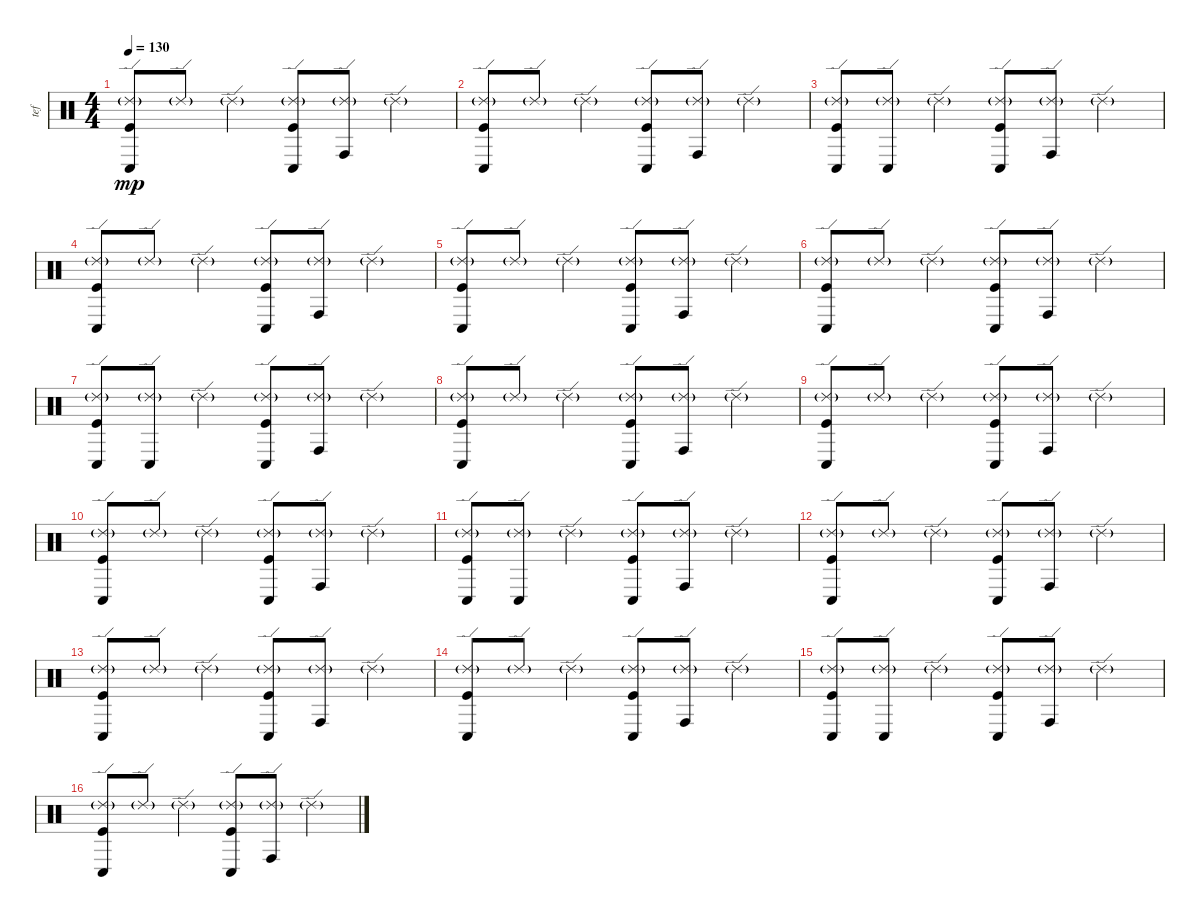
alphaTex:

\track ("tef" "tef") {instrument percussion}
\staff {score}
\articulation defaults
\ts (4 4)
\tempo 130
\clef neutral
\ks c
("Ride (edge) 2"{g} "Kick (hit)" "Conga low (hit)").8{dy mp} "Ride (edge) 2"{g}.8 "Ride (edge) 2"{g}.4 ("Ride (edge) 2"{g} "Kick (hit)" "Conga low (hit)").8 ("Ride (edge) 2"{g} "Conga high (hit)").8 "Ride (edge) 2"{g}.4 |
("Ride (edge) 2"{g} "Kick (hit)" "Conga low (hit)").8 "Ride (edge) 2"{g}.8 "Ride (edge) 2"{g}.4 ("Ride (edge) 2"{g} "Kick (hit)" "Conga low (hit)").8 ("Ride (edge) 2"{g} "Conga high (hit)").8 "Ride (edge) 2"{g}.4 |
("Ride (edge) 2"{g} "Kick (hit)" "Conga low (hit)").8 ("Ride (edge) 2"{g} "Conga low (hit)").8 "Ride (edge) 2"{g}.4 ("Ride (edge) 2"{g} "Kick (hit)" "Conga low (hit)").8 ("Ride (edge) 2"{g} "Conga high (hit)").8 "Ride (edge) 2"{g}.4 |
("Ride (edge) 2"{g} "Kick (hit)" "Conga low (hit)").8 "Ride (edge) 2"{g}.8 "Ride (edge) 2"{g}.4 ("Ride (edge) 2"{g} "Kick (hit)" "Conga low (hit)").8 ("Ride (edge) 2"{g} "Conga high (hit)").8 "Ride (edge) 2"{g}.4 |
("Ride (edge) 2"{g} "Kick (hit)" "Conga low (hit)").8 "Ride (edge) 2"{g}.8 "Ride (edge) 2"{g}.4 ("Ride (edge) 2"{g} "Kick (hit)" "Conga low (hit)").8 ("Ride (edge) 2"{g} "Conga high (hit)").8 "Ride (edge) 2"{g}.4 |
("Ride (edge) 2"{g} "Kick (hit)" "Conga low (hit)").8 "Ride (edge) 2"{g}.8 "Ride (edge) 2"{g}.4 ("Ride (edge) 2"{g} "Kick (hit)" "Conga low (hit)").8 ("Ride (edge) 2"{g} "Conga high (hit)").8 "Ride (edge) 2"{g}.4 |
("Ride (edge) 2"{g} "Kick (hit)" "Conga low (hit)").8 ("Ride (edge) 2"{g} "Conga low (hit)").8 "Ride (edge) 2"{g}.4 ("Ride (edge) 2"{g} "Kick (hit)" "Conga low (hit)").8 ("Ride (edge) 2"{g} "Conga high (hit)").8 "Ride (edge) 2"{g}.4 |
("Ride (edge) 2"{g} "Kick (hit)" "Conga low (hit)").8 "Ride (edge) 2"{g}.8 "Ride (edge) 2"{g}.4 ("Ride (edge) 2"{g} "Kick (hit)" "Conga low (hit)").8 ("Ride (edge) 2"{g} "Conga high (hit)").8 "Ride (edge) 2"{g}.4 |
("Ride (edge) 2"{g} "Kick (hit)" "Conga low (hit)").8 "Ride (edge) 2"{g}.8 "Ride (edge) 2"{g}.4 ("Ride (edge) 2"{g} "Kick (hit)" "Conga low (hit)").8 ("Ride (edge) 2"{g} "Conga high (hit)").8 "Ride (edge) 2"{g}.4 |
("Ride (edge) 2"{g} "Kick (hit)" "Conga low (hit)").8 "Ride (edge) 2"{g}.8 "Ride (edge) 2"{g}.4 ("Ride (edge) 2"{g} "Kick (hit)" "Conga low (hit)").8 ("Ride (edge) 2"{g} "Conga high (hit)").8 "Ride (edge) 2"{g}.4 |
("Ride (edge) 2"{g} "Kick (hit)" "Conga low (hit)").8 ("Ride (edge) 2"{g} "Conga low (hit)").8 "Ride (edge) 2"{g}.4 ("Ride (edge) 2"{g} "Kick (hit)" "Conga low (hit)").8 ("Ride (edge) 2"{g} "Conga high (hit)").8 "Ride (edge) 2"{g}.4 |
("Ride (edge) 2"{g} "Kick (hit)" "Conga low (hit)").8 "Ride (edge) 2"{g}.8 "Ride (edge) 2"{g}.4 ("Ride (edge) 2"{g} "Kick (hit)" "Conga low (hit)").8 ("Ride (edge) 2"{g} "Conga high (hit)").8 "Ride (edge) 2"{g}.4 |
("Ride (edge) 2"{g} "Kick (hit)" "Conga low (hit)").8 "Ride (edge) 2"{g}.8 "Ride (edge) 2"{g}.4 ("Ride (edge) 2"{g} "Kick (hit)" "Conga low (hit)").8 ("Ride (edge) 2"{g} "Conga high (hit)").8 "Ride (edge) 2"{g}.4 |
("Ride (edge) 2"{g} "Kick (hit)" "Conga low (hit)").8 "Ride (edge) 2"{g}.8 "Ride (edge) 2"{g}.4 ("Ride (edge) 2"{g} "Kick (hit)" "Conga low (hit)").8 ("Ride (edge) 2"{g} "Conga high (hit)").8 "Ride (edge) 2"{g}.4 |
("Ride (edge) 2"{g} "Kick (hit)" "Conga low (hit)").8 ("Ride (edge) 2"{g} "Conga low (hit)").8 "Ride (edge) 2"{g}.4 ("Ride (edge) 2"{g} "Kick (hit)" "Conga low (hit)").8 ("Ride (edge) 2"{g} "Conga high (hit)").8 "Ride (edge) 2"{g}.4 |
("Ride (edge) 2"{g} "Kick (hit)" "Conga low (hit)").8 "Ride (edge) 2"{g}.8 "Ride (edge) 2"{g}.4 ("Ride (edge) 2"{g} "Kick (hit)" "Conga low (hit)").8 ("Ride (edge) 2"{g} "Conga high (hit)").8 "Ride (edge) 2"{g}.4
